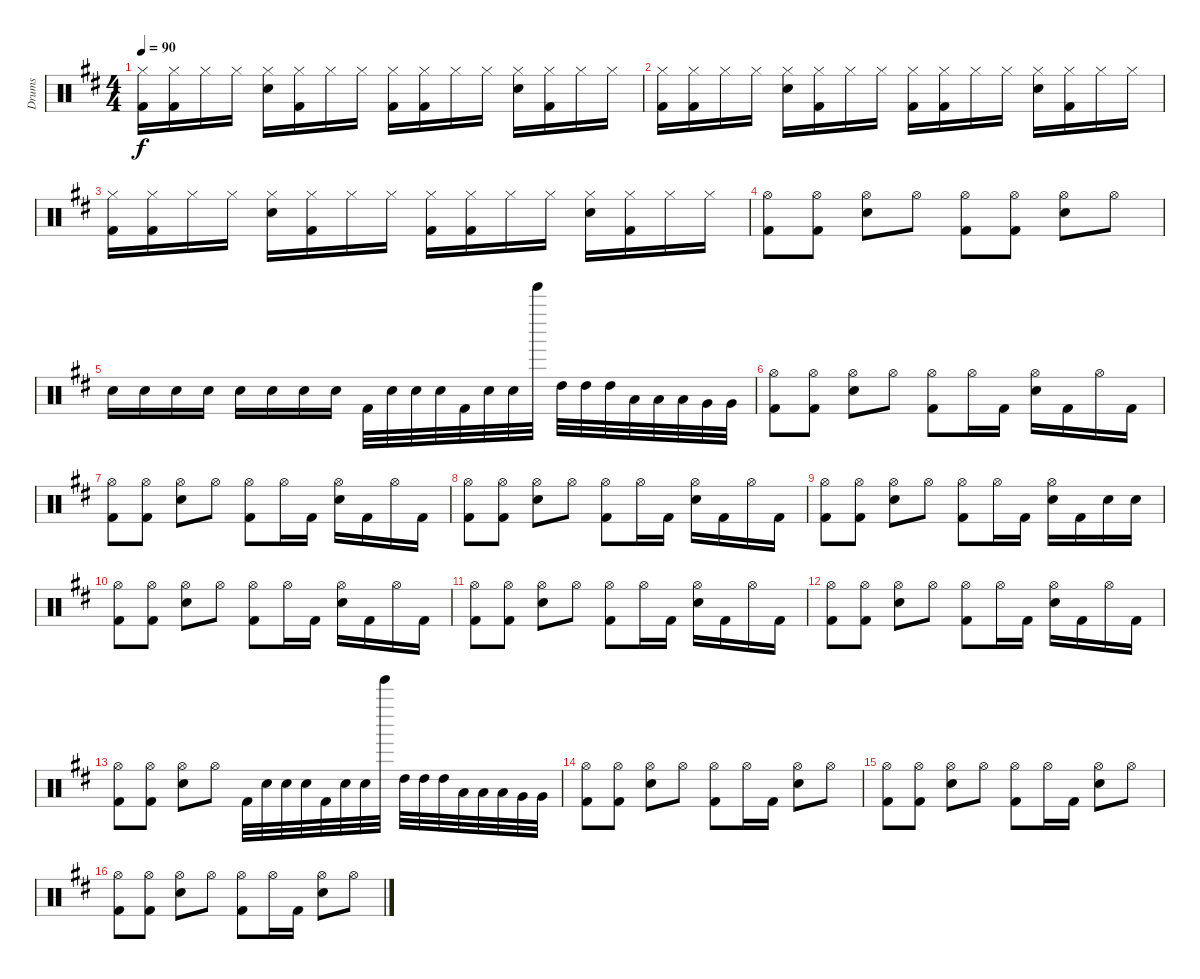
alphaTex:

\track ("Drums" "Drums") {instrument percussion}
\staff {score}
\articulation defaults
\ts (4 4)
\tempo 90
\clef neutral
\ks bminor
("Hi-Hat (closed)" "Kick (hit) 2").16{dy f} ("Hi-Hat (closed)" "Kick (hit) 2").16 "Hi-Hat (closed)".16 "Hi-Hat (closed)".16 ("Hi-Hat (closed)" "Snare (hit) 2").16 ("Hi-Hat (closed)" "Kick (hit) 2").16 "Hi-Hat (closed)".16 "Hi-Hat (closed)".16 ("Hi-Hat (closed)" "Kick (hit) 2").16 ("Hi-Hat (closed)" "Kick (hit) 2").16 "Hi-Hat (closed)".16 "Hi-Hat (closed)".16 ("Hi-Hat (closed)" "Snare (hit) 2").16 ("Hi-Hat (closed)" "Kick (hit) 2").16 "Hi-Hat (closed)".16 "Hi-Hat (closed)".16 |
("Hi-Hat (closed)" "Kick (hit) 2").16 ("Hi-Hat (closed)" "Kick (hit) 2").16 "Hi-Hat (closed)".16 "Hi-Hat (closed)".16 ("Hi-Hat (closed)" "Snare (hit) 2").16 ("Hi-Hat (closed)" "Kick (hit) 2").16 "Hi-Hat (closed)".16 "Hi-Hat (closed)".16 ("Hi-Hat (closed)" "Kick (hit) 2").16 ("Hi-Hat (closed)" "Kick (hit) 2").16 "Hi-Hat (closed)".16 "Hi-Hat (closed)".16 ("Hi-Hat (closed)" "Snare (hit) 2").16 ("Hi-Hat (closed)" "Kick (hit) 2").16 "Hi-Hat (closed)".16 "Hi-Hat (closed)".16 |
("Hi-Hat (closed)" "Kick (hit) 2").16 ("Hi-Hat (closed)" "Kick (hit) 2").16 "Hi-Hat (closed)".16 "Hi-Hat (closed)".16 ("Hi-Hat (closed)" "Snare (hit) 2").16 ("Hi-Hat (closed)" "Kick (hit) 2").16 "Hi-Hat (closed)".16 "Hi-Hat (closed)".16 ("Hi-Hat (closed)" "Kick (hit) 2").16 ("Hi-Hat (closed)" "Kick (hit) 2").16 "Hi-Hat (closed)".16 "Hi-Hat (closed)".16 ("Hi-Hat (closed)" "Snare (hit) 2").16 ("Hi-Hat (closed)" "Kick (hit) 2").16 "Hi-Hat (closed)".16 "Hi-Hat (closed)".16 |
("Hi-Hat (open)" "Kick (hit) 2").8 ("Hi-Hat (open)" "Kick (hit) 2").8 ("Hi-Hat (open)" "Snare (hit) 2").8 "Hi-Hat (open)".8 ("Hi-Hat (open)" "Kick (hit) 2").8 ("Hi-Hat (open)" "Kick (hit) 2").8 ("Hi-Hat (open)" "Snare (hit) 2").8 "Hi-Hat (open)".8 |
"Snare (hit) 2".16 "Snare (hit) 2".16 "Snare (hit) 2".16 "Snare (hit) 2".16 "Snare (hit) 2".16 "Snare (hit) 2".16 "Snare (hit) 2".16 "Snare (hit) 2".16 "Kick (hit) 2".32 "Snare (hit) 2".32 "Snare (hit) 2".32 "Snare (hit) 2".32 "Kick (hit) 2".32 "Snare (hit) 2".32 "Snare (hit) 2".32 "Tinkle Bell (hit)".32 "High Tom (hit)".32 "High Tom (hit)".32 "High Tom (hit)".32 "Low Tom (hit)".32 "Low Tom (hit)".32 "Low Tom (hit)".32 "Very Low Tom (hit)".32 "Very Low Tom (hit)".32 |
("Hi-Hat (open)" "Kick (hit) 2").8 ("Hi-Hat (open)" "Kick (hit) 2").8 ("Hi-Hat (open)" "Snare (hit) 2").8 "Hi-Hat (open)".8 ("Hi-Hat (open)" "Kick (hit) 2").8 "Hi-Hat (open)".16 "Kick (hit) 2".16 ("Hi-Hat (open)" "Snare (hit) 2").16 "Kick (hit) 2".16 "Hi-Hat (open)".16 "Kick (hit) 2".16 |
("Hi-Hat (open)" "Kick (hit) 2").8 ("Hi-Hat (open)" "Kick (hit) 2").8 ("Hi-Hat (open)" "Snare (hit) 2").8 "Hi-Hat (open)".8 ("Hi-Hat (open)" "Kick (hit) 2").8 "Hi-Hat (open)".16 "Kick (hit) 2".16 ("Hi-Hat (open)" "Snare (hit) 2").16 "Kick (hit) 2".16 "Hi-Hat (open)".16 "Kick (hit) 2".16 |
("Hi-Hat (open)" "Kick (hit) 2").8 ("Hi-Hat (open)" "Kick (hit) 2").8 ("Hi-Hat (open)" "Snare (hit) 2").8 "Hi-Hat (open)".8 ("Hi-Hat (open)" "Kick (hit) 2").8 "Hi-Hat (open)".16 "Kick (hit) 2".16 ("Hi-Hat (open)" "Snare (hit) 2").16 "Kick (hit) 2".16 "Hi-Hat (open)".16 "Kick (hit) 2".16 |
("Hi-Hat (open)" "Kick (hit) 2").8 ("Hi-Hat (open)" "Kick (hit) 2").8 ("Hi-Hat (open)" "Snare (hit) 2").8 "Hi-Hat (open)".8 ("Hi-Hat (open)" "Kick (hit) 2").8 "Hi-Hat (open)".16 "Kick (hit) 2".16 ("Hi-Hat (open)" "Snare (hit) 2").16 "Kick (hit) 2".16 "Snare (hit) 2".16 "Snare (hit) 2".16 |
("Hi-Hat (open)" "Kick (hit) 2").8 ("Hi-Hat (open)" "Kick (hit) 2").8 ("Hi-Hat (open)" "Snare (hit) 2").8 "Hi-Hat (open)".8 ("Hi-Hat (open)" "Kick (hit) 2").8 "Hi-Hat (open)".16 "Kick (hit) 2".16 ("Hi-Hat (open)" "Snare (hit) 2").16 "Kick (hit) 2".16 "Hi-Hat (open)".16 "Kick (hit) 2".16 |
("Hi-Hat (open)" "Kick (hit) 2").8 ("Hi-Hat (open)" "Kick (hit) 2").8 ("Hi-Hat (open)" "Snare (hit) 2").8 "Hi-Hat (open)".8 ("Hi-Hat (open)" "Kick (hit) 2").8 "Hi-Hat (open)".16 "Kick (hit) 2".16 ("Hi-Hat (open)" "Snare (hit) 2").16 "Kick (hit) 2".16 "Hi-Hat (open)".16 "Kick (hit) 2".16 |
("Hi-Hat (open)" "Kick (hit) 2").8 ("Hi-Hat (open)" "Kick (hit) 2").8 ("Hi-Hat (open)" "Snare (hit) 2").8 "Hi-Hat (open)".8 ("Hi-Hat (open)" "Kick (hit) 2").8 "Hi-Hat (open)".16 "Kick (hit) 2".16 ("Hi-Hat (open)" "Snare (hit) 2").16 "Kick (hit) 2".16 "Hi-Hat (open)".16 "Kick (hit) 2".16 |
("Hi-Hat (open)" "Kick (hit) 2").8 ("Hi-Hat (open)" "Kick (hit) 2").8 ("Hi-Hat (open)" "Snare (hit) 2").8 "Hi-Hat (open)".8 "Kick (hit) 2".32 "Snare (hit) 2".32 "Snare (hit) 2".32 "Snare (hit) 2".32 "Kick (hit) 2".32 "Snare (hit) 2".32 "Snare (hit) 2".32 "Tinkle Bell (hit)".32 "High Tom (hit)".32 "High Tom (hit)".32 "High Tom (hit)".32 "Low Tom (hit)".32 "Low Tom (hit)".32 "Low Tom (hit)".32 "Very Low Tom (hit)".32 "Very Low Tom (hit)".32 |
("Hi-Hat (open)" "Kick (hit) 2").8 ("Hi-Hat (open)" "Kick (hit) 2").8 ("Hi-Hat (open)" "Snare (hit) 2").8 "Hi-Hat (open)".8 ("Hi-Hat (open)" "Kick (hit) 2").8 "Hi-Hat (open)".16 "Kick (hit) 2".16 ("Hi-Hat (open)" "Snare (hit) 2").8 "Hi-Hat (open)".8 |
("Hi-Hat (open)" "Kick (hit) 2").8 ("Hi-Hat (open)" "Kick (hit) 2").8 ("Hi-Hat (open)" "Snare (hit) 2").8 "Hi-Hat (open)".8 ("Hi-Hat (open)" "Kick (hit) 2").8 "Hi-Hat (open)".16 "Kick (hit) 2".16 ("Hi-Hat (open)" "Snare (hit) 2").8 "Hi-Hat (open)".8 |
("Hi-Hat (open)" "Kick (hit) 2").8 ("Hi-Hat (open)" "Kick (hit) 2").8 ("Hi-Hat (open)" "Snare (hit) 2").8 "Hi-Hat (open)".8 ("Hi-Hat (open)" "Kick (hit) 2").8 "Hi-Hat (open)".16 "Kick (hit) 2".16 ("Hi-Hat (open)" "Snare (hit) 2").8 "Hi-Hat (open)".8
